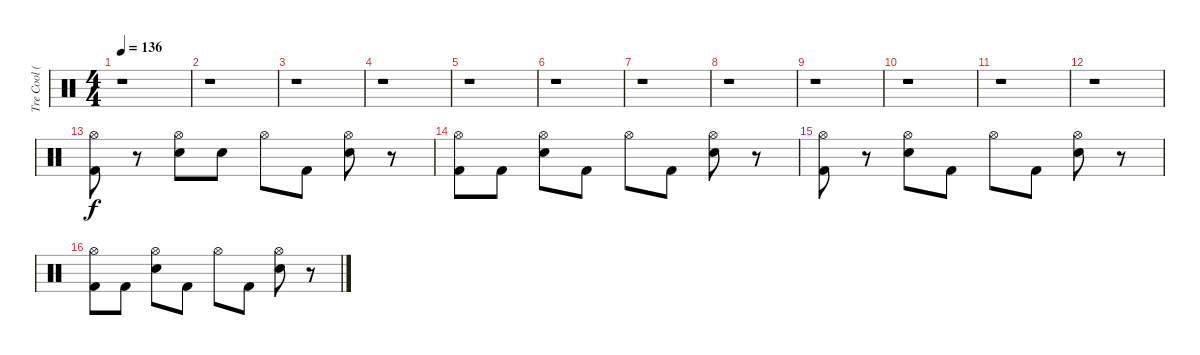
\track ("Tre Cool (Drums)" "Tre Cool (") {instrument percussion}
\staff {score}
\articulation defaults
\ts (4 4)
\tempo 136
\clef neutral
\ks c
r.1{dy f} |
r.1 |
r.1 |
r.1 |
r.1 |
r.1 |
r.1 |
r.1 |
r.1 |
r.1 |
r.1 |
r.1 |
("Kick (hit) 2" "Hi-Hat (open)").8 r.8 ("Electric Snare (hit)" "Hi-Hat (open)").8 "Electric Snare (hit)".8 "Hi-Hat (open)".8 "Kick (hit) 2".8 ("Electric Snare (hit)" "Hi-Hat (open)").8 r.8 |
("Kick (hit) 2" "Hi-Hat (open)").8 "Kick (hit) 2".8 ("Electric Snare (hit)" "Hi-Hat (open)").8 "Kick (hit) 2".8 "Hi-Hat (open)".8 "Kick (hit) 2".8 ("Electric Snare (hit)" "Hi-Hat (open)").8 r.8 |
("Kick (hit) 2" "Hi-Hat (open)").8 r.8 ("Electric Snare (hit)" "Hi-Hat (open)").8 "Kick (hit) 2".8 "Hi-Hat (open)".8 "Kick (hit) 2".8 ("Electric Snare (hit)" "Hi-Hat (open)").8 r.8 |
("Kick (hit) 2" "Hi-Hat (open)").8 "Kick (hit) 2".8 ("Electric Snare (hit)" "Hi-Hat (open)").8 "Kick (hit) 2".8 "Hi-Hat (open)".8 "Kick (hit) 2".8 ("Electric Snare (hit)" "Hi-Hat (open)").8 r.8
